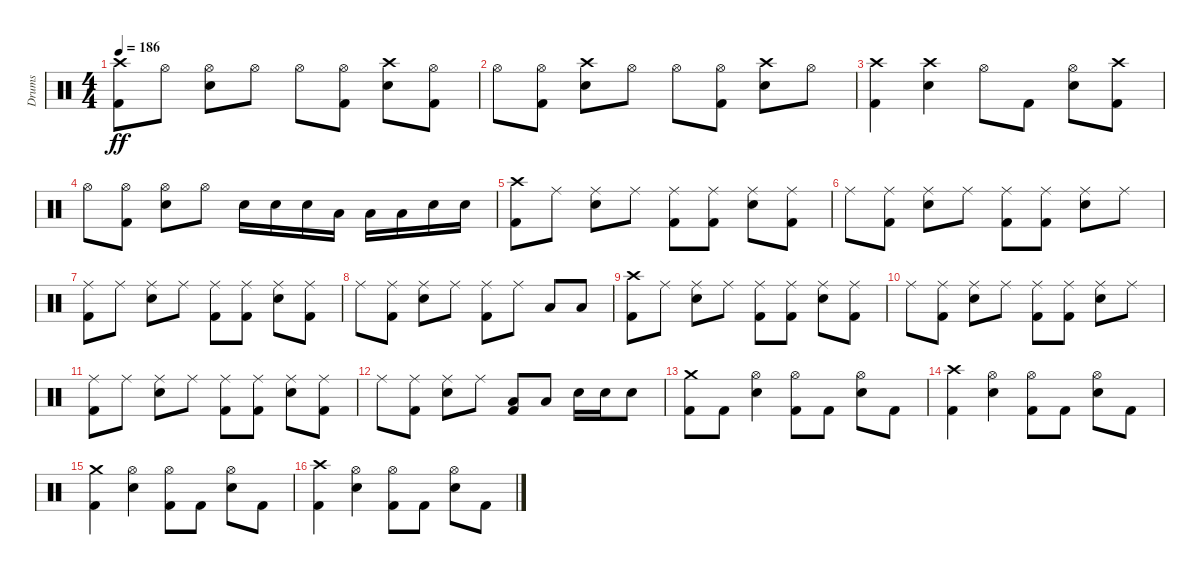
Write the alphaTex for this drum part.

\track ("Drums" "Drums") {instrument percussion}
\staff {score}
\articulation defaults
\ts (4 4)
\tempo 186
\clef neutral
\ks c
("Kick (hit) 2" "Crash high (hit)").8{dy ff} "Hi-Hat (open)".8 ("Snare (hit) 2" "Hi-Hat (open)").8 "Hi-Hat (open)".8 "Hi-Hat (open)".8 ("Kick (hit) 2" "Hi-Hat (open)").8 ("Snare (hit) 2" "Crash high (hit)").8 ("Kick (hit) 2" "Hi-Hat (open)").8 |
"Hi-Hat (open)".8 ("Kick (hit) 2" "Hi-Hat (open)").8 ("Snare (hit) 2" "Crash high (hit)").8 "Hi-Hat (open)".8 "Hi-Hat (open)".8 ("Kick (hit) 2" "Hi-Hat (open)").8 ("Snare (hit) 2" "Crash high (hit)").8 "Hi-Hat (open)".8 |
("Kick (hit) 2" "Crash high (hit)").4 ("Snare (hit) 2" "Crash high (hit)").4 "Hi-Hat (open)".8 "Kick (hit) 2".8 ("Snare (hit) 2" "Hi-Hat (open)").8 ("Kick (hit) 2" "Crash high (hit)").8 |
"Hi-Hat (open)".8 ("Kick (hit) 2" "Hi-Hat (open)").8 ("Snare (hit) 2" "Hi-Hat (open)").8 "Hi-Hat (open)".8 "Snare (hit) 2".16 "Snare (hit) 2".16 "Snare (hit) 2".16 "Low Tom (hit)".16 "Low Tom (hit)".16 "Low Tom (hit)".16 "Snare (hit) 2".16 "Snare (hit) 2".16 |
("Kick (hit) 2" "Crash high (hit)").8 "Ride (middle)".8 ("Snare (hit) 2" "Ride (middle)").8 "Ride (middle)".8 ("Kick (hit) 2" "Ride (middle)").8 ("Kick (hit) 2" "Ride (middle)").8 ("Snare (hit) 2" "Ride (middle)").8 ("Kick (hit) 2" "Ride (middle)").8 |
"Ride (middle)".8 ("Kick (hit) 2" "Ride (middle)").8 ("Snare (hit) 2" "Ride (middle)").8 "Ride (middle)".8 ("Kick (hit) 2" "Ride (middle)").8 ("Kick (hit) 2" "Ride (middle)").8 ("Snare (hit) 2" "Ride (middle)").8 "Ride (middle)".8 |
("Kick (hit) 2" "Ride (middle)").8 "Ride (middle)".8 ("Snare (hit) 2" "Ride (middle)").8 "Ride (middle)".8 ("Kick (hit) 2" "Ride (middle)").8 ("Kick (hit) 2" "Ride (middle)").8 ("Snare (hit) 2" "Ride (middle)").8 ("Kick (hit) 2" "Ride (middle)").8 |
"Ride (middle)".8 ("Kick (hit) 2" "Ride (middle)").8 ("Snare (hit) 2" "Ride (middle)").8 "Ride (middle)".8 ("Kick (hit) 2" "Ride (middle)").8 "Ride (middle)".8 "Low Tom (hit)".8 "Low Tom (hit)".8 |
("Kick (hit) 2" "Crash high (hit)").8 "Ride (middle)".8 ("Snare (hit) 2" "Ride (middle)").8 "Ride (middle)".8 ("Kick (hit) 2" "Ride (middle)").8 ("Kick (hit) 2" "Ride (middle)").8 ("Snare (hit) 2" "Ride (middle)").8 ("Kick (hit) 2" "Ride (middle)").8 |
"Ride (middle)".8 ("Kick (hit) 2" "Ride (middle)").8 ("Snare (hit) 2" "Ride (middle)").8 "Ride (middle)".8 ("Kick (hit) 2" "Ride (middle)").8 ("Kick (hit) 2" "Ride (middle)").8 ("Snare (hit) 2" "Ride (middle)").8 "Ride (middle)".8 |
("Kick (hit) 2" "Ride (middle)").8 "Ride (middle)".8 ("Snare (hit) 2" "Ride (middle)").8 "Ride (middle)".8 ("Kick (hit) 2" "Ride (middle)").8 ("Kick (hit) 2" "Ride (middle)").8 ("Snare (hit) 2" "Ride (middle)").8 ("Kick (hit) 2" "Ride (middle)").8 |
"Ride (middle)".8 ("Kick (hit) 2" "Ride (middle)").8 ("Snare (hit) 2" "Ride (middle)").8 "Ride (middle)".8 ("Kick (hit) 2" "Low Tom (hit)").8 "Low Tom (hit)".8 "Snare (hit) 2".16 "Snare (hit) 2".16 "Snare (hit) 2".8 |
("Kick (hit) 2" "Crash medium (hit)").8 "Kick (hit) 2".8 ("Snare (hit) 2" "Hi-Hat (open)").4 ("Kick (hit) 2" "Hi-Hat (open)").8 "Kick (hit) 2".8 ("Snare (hit) 2" "Hi-Hat (open)").8 "Kick (hit) 2".8 |
("Kick (hit) 2" "Crash high (hit)").4 ("Snare (hit) 2" "Hi-Hat (open)").4 ("Kick (hit) 2" "Hi-Hat (open)").8 "Kick (hit) 2".8 ("Snare (hit) 2" "Hi-Hat (open)").8 "Kick (hit) 2".8 |
("Kick (hit) 2" "Crash medium (hit)").4 ("Snare (hit) 2" "Hi-Hat (open)").4 ("Kick (hit) 2" "Hi-Hat (open)").8 "Kick (hit) 2".8 ("Snare (hit) 2" "Hi-Hat (open)").8 "Kick (hit) 2".8 |
("Kick (hit) 2" "Crash high (hit)").4 ("Snare (hit) 2" "Hi-Hat (open)").4 ("Kick (hit) 2" "Hi-Hat (open)").8 "Kick (hit) 2".8 ("Snare (hit) 2" "Hi-Hat (open)").8 "Kick (hit) 2".8
